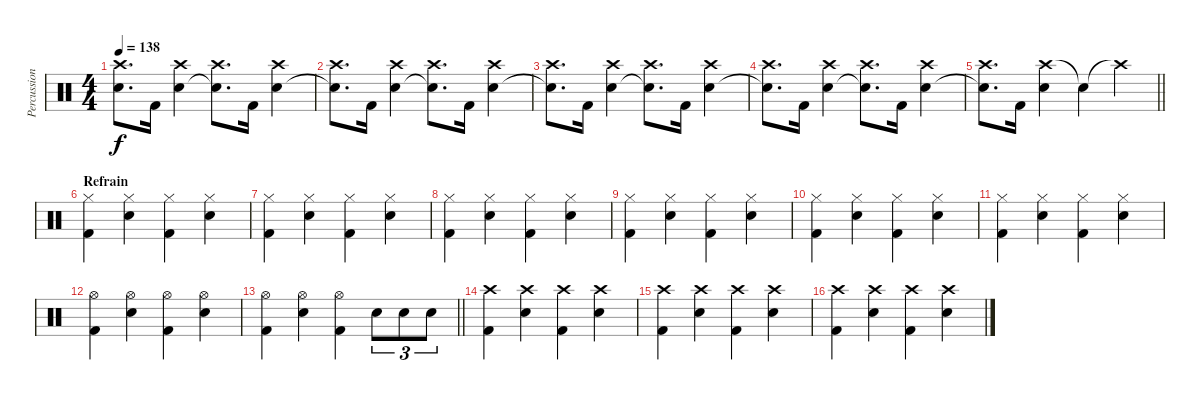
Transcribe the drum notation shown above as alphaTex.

\track ("Percussions Karim" "Percussion") {instrument percussion}
\staff {score}
\articulation defaults
\ts (4 4)
\tempo 138
\clef neutral
\ks c
("Crash high (hit)" "Electric Snare (hit)"{t}).8{d dy f} "Kick (hit) 2".16 ("Crash high (hit)" "Electric Snare (hit)").4 ("Crash high (hit)" "Electric Snare (hit)"{t}).8{d} "Kick (hit) 2".16 ("Crash high (hit)" "Electric Snare (hit)").4 |
("Crash high (hit)" "Electric Snare (hit)"{t}).8{d} "Kick (hit) 2".16 ("Crash high (hit)" "Electric Snare (hit)").4 ("Crash high (hit)" "Electric Snare (hit)"{t}).8{d} "Kick (hit) 2".16 ("Crash high (hit)" "Electric Snare (hit)").4 |
("Crash high (hit)" "Electric Snare (hit)"{t}).8{d} "Kick (hit) 2".16 ("Crash high (hit)" "Electric Snare (hit)").4 ("Crash high (hit)" "Electric Snare (hit)"{t}).8{d} "Kick (hit) 2".16 ("Crash high (hit)" "Electric Snare (hit)").4 |
("Crash high (hit)" "Electric Snare (hit)"{t}).8{d} "Kick (hit) 2".16 ("Crash high (hit)" "Electric Snare (hit)").4 ("Crash high (hit)" "Electric Snare (hit)"{t}).8{d} "Kick (hit) 2".16 ("Crash high (hit)" "Electric Snare (hit)").4 |
\barLineRight lightlight
("Crash high (hit)" "Electric Snare (hit)"{t}).8{d} "Kick (hit) 2".16 ("Crash high (hit)" "Electric Snare (hit)").4 "Electric Snare (hit)"{t}.4 "Crash high (hit)"{t}.4 |
\section ("" "Refrain")
("Hi-Hat (closed)" "Kick (hit) 2").4 ("Hi-Hat (closed)" "Electric Snare (hit)").4 ("Hi-Hat (closed)" "Kick (hit) 2").4 ("Hi-Hat (closed)" "Electric Snare (hit)").4 |
("Hi-Hat (closed)" "Kick (hit) 2").4 ("Hi-Hat (closed)" "Electric Snare (hit)").4 ("Hi-Hat (closed)" "Kick (hit) 2").4 ("Hi-Hat (closed)" "Electric Snare (hit)").4 |
("Hi-Hat (closed)" "Kick (hit) 2").4 ("Hi-Hat (closed)" "Electric Snare (hit)").4 ("Hi-Hat (closed)" "Kick (hit) 2").4 ("Hi-Hat (closed)" "Electric Snare (hit)").4 |
("Hi-Hat (closed)" "Kick (hit) 2").4 ("Hi-Hat (closed)" "Electric Snare (hit)").4 ("Hi-Hat (closed)" "Kick (hit) 2").4 ("Hi-Hat (closed)" "Electric Snare (hit)").4 |
("Hi-Hat (closed)" "Kick (hit) 2").4 ("Hi-Hat (closed)" "Electric Snare (hit)").4 ("Hi-Hat (closed)" "Kick (hit) 2").4 ("Hi-Hat (closed)" "Electric Snare (hit)").4 |
("Hi-Hat (closed)" "Kick (hit) 2").4 ("Hi-Hat (closed)" "Electric Snare (hit)").4 ("Hi-Hat (closed)" "Kick (hit) 2").4 ("Hi-Hat (closed)" "Electric Snare (hit)").4 |
("Hi-Hat (open)" "Kick (hit) 2").4 ("Hi-Hat (open)" "Electric Snare (hit)").4 ("Hi-Hat (open)" "Kick (hit) 2").4 ("Hi-Hat (open)" "Electric Snare (hit)").4 |
\barLineRight lightlight
("Hi-Hat (open)" "Kick (hit) 2").4 ("Hi-Hat (open)" "Electric Snare (hit)").4 ("Hi-Hat (open)" "Kick (hit) 2").4 "Electric Snare (hit)".8{tu (3 2)} "Electric Snare (hit)".8{tu (3 2)} "Electric Snare (hit)".8{tu (3 2)} |
\section ("" "")
("Crash high (hit)" "Kick (hit) 2").4 ("Crash high (hit)" "Snare (hit) 2").4 ("Crash high (hit)" "Kick (hit) 2").4 ("Crash high (hit)" "Snare (hit) 2").4 |
("Crash high (hit)" "Kick (hit) 2").4 ("Crash high (hit)" "Snare (hit) 2").4 ("Crash high (hit)" "Kick (hit) 2").4 ("Crash high (hit)" "Snare (hit) 2").4 |
("Crash high (hit)" "Kick (hit) 2").4 ("Crash high (hit)" "Snare (hit) 2").4 ("Crash high (hit)" "Kick (hit) 2").4 ("Crash high (hit)" "Snare (hit) 2").4
